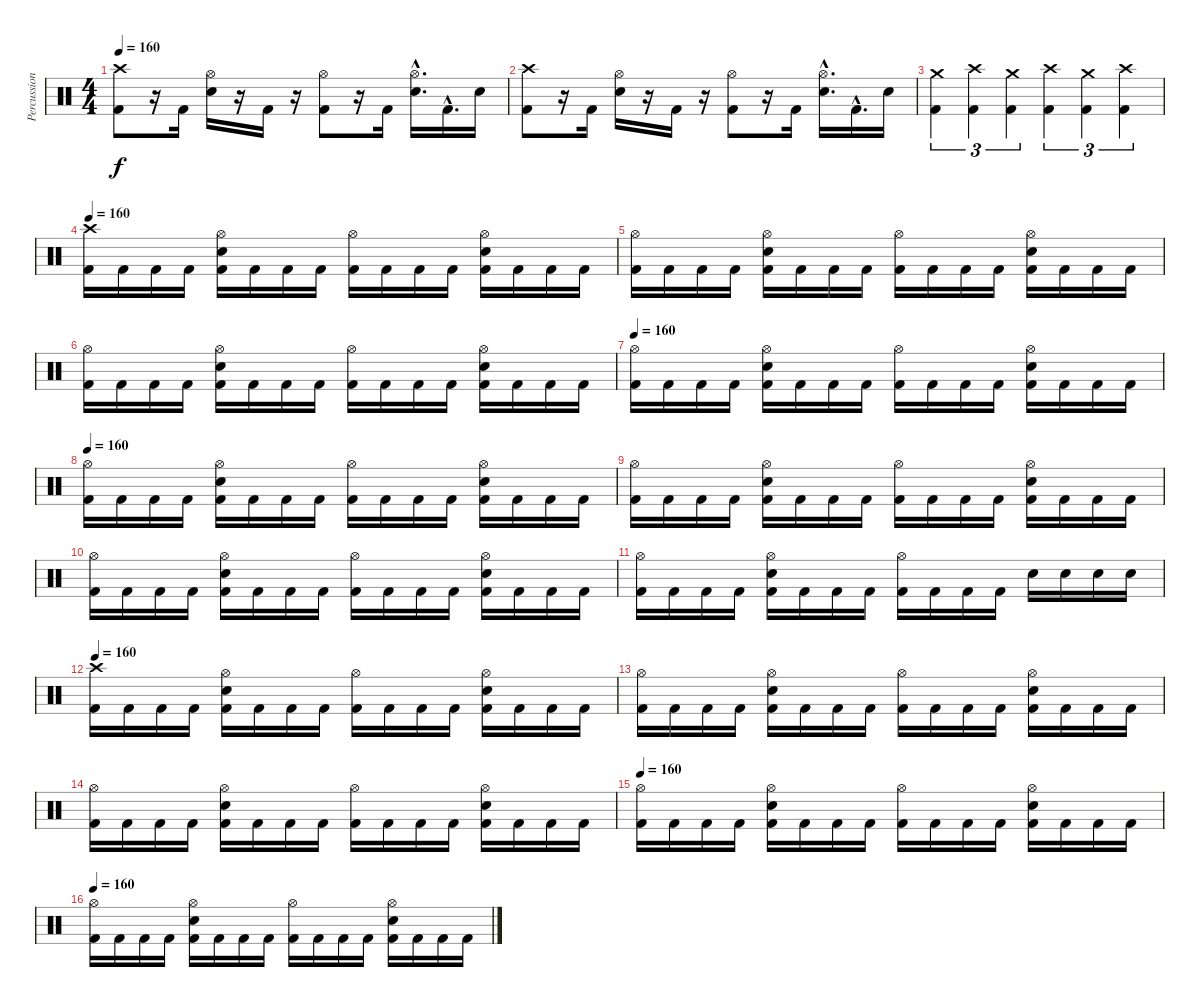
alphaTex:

\track ("Percussions" "Percussion") {instrument percussion}
\staff {score}
\articulation defaults
\ts (4 4)
\tempo 160
\clef neutral
\ks c
("Kick (hit) 2" "Crash high (hit)").8{dy f} r.16 "Kick (hit) 2".16 ("Electric Snare (hit)" "Hi-Hat (open)").16 r.16 "Kick (hit) 2".16 r.16 ("Kick (hit) 2" "Hi-Hat (open)").8 r.16 "Kick (hit) 2".16 ("Electric Snare (hit)"{hac} "Hi-Hat (open)"{hac}).16{d} "Kick (hit) 2"{hac}.16{d} "Electric Snare (hit)".16 |
("Kick (hit) 2" "Crash high (hit)").8 r.16 "Kick (hit) 2".16 ("Electric Snare (hit)" "Hi-Hat (open)").16 r.16 "Kick (hit) 2".16 r.16 ("Kick (hit) 2" "Hi-Hat (open)").8 r.16 "Kick (hit) 2".16 ("Electric Snare (hit)"{hac} "Hi-Hat (open)"{hac}).16{d} "Kick (hit) 2"{hac}.16{d} "Electric Snare (hit)".16 |
("Kick (hit) 2" "Crash medium (hit)").4{tu (3 2)} ("Kick (hit) 2" "Crash high (hit)").4{tu (3 2)} ("Kick (hit) 2" "Crash medium (hit)").4{tu (3 2)} ("Kick (hit) 2" "Crash high (hit)").4{tu (3 2)} ("Kick (hit) 2" "Crash medium (hit)").4{tu (3 2)} ("Kick (hit) 2" "Crash high (hit)").4{tu (3 2)} |
\tempo 160
("Kick (hit) 2" "Crash high (hit)").16 "Kick (hit) 2".16 "Kick (hit) 2".16 "Kick (hit) 2".16 ("Kick (hit) 2" "Electric Snare (hit)" "Hi-Hat (open)").16 "Kick (hit) 2".16 "Kick (hit) 2".16 "Kick (hit) 2".16 ("Kick (hit) 2" "Hi-Hat (open)").16 "Kick (hit) 2".16 "Kick (hit) 2".16 "Kick (hit) 2".16 ("Kick (hit) 2" "Electric Snare (hit)" "Hi-Hat (open)").16 "Kick (hit) 2".16 "Kick (hit) 2".16 "Kick (hit) 2".16 |
("Kick (hit) 2" "Hi-Hat (open)").16 "Kick (hit) 2".16 "Kick (hit) 2".16 "Kick (hit) 2".16 ("Kick (hit) 2" "Electric Snare (hit)" "Hi-Hat (open)").16 "Kick (hit) 2".16 "Kick (hit) 2".16 "Kick (hit) 2".16 ("Kick (hit) 2" "Hi-Hat (open)").16 "Kick (hit) 2".16 "Kick (hit) 2".16 "Kick (hit) 2".16 ("Kick (hit) 2" "Electric Snare (hit)" "Hi-Hat (open)").16 "Kick (hit) 2".16 "Kick (hit) 2".16 "Kick (hit) 2".16 |
("Kick (hit) 2" "Hi-Hat (open)").16 "Kick (hit) 2".16 "Kick (hit) 2".16 "Kick (hit) 2".16 ("Kick (hit) 2" "Electric Snare (hit)" "Hi-Hat (open)").16 "Kick (hit) 2".16 "Kick (hit) 2".16 "Kick (hit) 2".16 ("Kick (hit) 2" "Hi-Hat (open)").16 "Kick (hit) 2".16 "Kick (hit) 2".16 "Kick (hit) 2".16 ("Kick (hit) 2" "Electric Snare (hit)" "Hi-Hat (open)").16 "Kick (hit) 2".16 "Kick (hit) 2".16 "Kick (hit) 2".16 |
\tempo 160
("Kick (hit) 2" "Hi-Hat (open)").16 "Kick (hit) 2".16 "Kick (hit) 2".16 "Kick (hit) 2".16 ("Kick (hit) 2" "Electric Snare (hit)" "Hi-Hat (open)").16 "Kick (hit) 2".16 "Kick (hit) 2".16 "Kick (hit) 2".16 ("Kick (hit) 2" "Hi-Hat (open)").16 "Kick (hit) 2".16 "Kick (hit) 2".16 "Kick (hit) 2".16 ("Kick (hit) 2" "Electric Snare (hit)" "Hi-Hat (open)").16 "Kick (hit) 2".16 "Kick (hit) 2".16 "Kick (hit) 2".16 |
\tempo 160
("Kick (hit) 2" "Hi-Hat (open)").16 "Kick (hit) 2".16 "Kick (hit) 2".16 "Kick (hit) 2".16 ("Kick (hit) 2" "Electric Snare (hit)" "Hi-Hat (open)").16 "Kick (hit) 2".16 "Kick (hit) 2".16 "Kick (hit) 2".16 ("Kick (hit) 2" "Hi-Hat (open)").16 "Kick (hit) 2".16 "Kick (hit) 2".16 "Kick (hit) 2".16 ("Kick (hit) 2" "Electric Snare (hit)" "Hi-Hat (open)").16 "Kick (hit) 2".16 "Kick (hit) 2".16 "Kick (hit) 2".16 |
("Kick (hit) 2" "Hi-Hat (open)").16 "Kick (hit) 2".16 "Kick (hit) 2".16 "Kick (hit) 2".16 ("Kick (hit) 2" "Electric Snare (hit)" "Hi-Hat (open)").16 "Kick (hit) 2".16 "Kick (hit) 2".16 "Kick (hit) 2".16 ("Kick (hit) 2" "Hi-Hat (open)").16 "Kick (hit) 2".16 "Kick (hit) 2".16 "Kick (hit) 2".16 ("Kick (hit) 2" "Electric Snare (hit)" "Hi-Hat (open)").16 "Kick (hit) 2".16 "Kick (hit) 2".16 "Kick (hit) 2".16 |
("Kick (hit) 2" "Hi-Hat (open)").16 "Kick (hit) 2".16 "Kick (hit) 2".16 "Kick (hit) 2".16 ("Kick (hit) 2" "Electric Snare (hit)" "Hi-Hat (open)").16 "Kick (hit) 2".16 "Kick (hit) 2".16 "Kick (hit) 2".16 ("Kick (hit) 2" "Hi-Hat (open)").16 "Kick (hit) 2".16 "Kick (hit) 2".16 "Kick (hit) 2".16 ("Kick (hit) 2" "Electric Snare (hit)" "Hi-Hat (open)").16 "Kick (hit) 2".16 "Kick (hit) 2".16 "Kick (hit) 2".16 |
("Kick (hit) 2" "Hi-Hat (open)").16 "Kick (hit) 2".16 "Kick (hit) 2".16 "Kick (hit) 2".16 ("Kick (hit) 2" "Electric Snare (hit)" "Hi-Hat (open)").16 "Kick (hit) 2".16 "Kick (hit) 2".16 "Kick (hit) 2".16 ("Kick (hit) 2" "Hi-Hat (open)").16 "Kick (hit) 2".16 "Kick (hit) 2".16 "Kick (hit) 2".16 "Electric Snare (hit)".16 "Electric Snare (hit)".16 "Electric Snare (hit)".16 "Electric Snare (hit)".16 |
\tempo 160
("Kick (hit) 2" "Crash high (hit)").16 "Kick (hit) 2".16 "Kick (hit) 2".16 "Kick (hit) 2".16 ("Kick (hit) 2" "Electric Snare (hit)" "Hi-Hat (open)").16 "Kick (hit) 2".16 "Kick (hit) 2".16 "Kick (hit) 2".16 ("Kick (hit) 2" "Hi-Hat (open)").16 "Kick (hit) 2".16 "Kick (hit) 2".16 "Kick (hit) 2".16 ("Kick (hit) 2" "Electric Snare (hit)" "Hi-Hat (open)").16 "Kick (hit) 2".16 "Kick (hit) 2".16 "Kick (hit) 2".16 |
("Kick (hit) 2" "Hi-Hat (open)").16 "Kick (hit) 2".16 "Kick (hit) 2".16 "Kick (hit) 2".16 ("Kick (hit) 2" "Electric Snare (hit)" "Hi-Hat (open)").16 "Kick (hit) 2".16 "Kick (hit) 2".16 "Kick (hit) 2".16 ("Kick (hit) 2" "Hi-Hat (open)").16 "Kick (hit) 2".16 "Kick (hit) 2".16 "Kick (hit) 2".16 ("Kick (hit) 2" "Electric Snare (hit)" "Hi-Hat (open)").16 "Kick (hit) 2".16 "Kick (hit) 2".16 "Kick (hit) 2".16 |
("Kick (hit) 2" "Hi-Hat (open)").16 "Kick (hit) 2".16 "Kick (hit) 2".16 "Kick (hit) 2".16 ("Kick (hit) 2" "Electric Snare (hit)" "Hi-Hat (open)").16 "Kick (hit) 2".16 "Kick (hit) 2".16 "Kick (hit) 2".16 ("Kick (hit) 2" "Hi-Hat (open)").16 "Kick (hit) 2".16 "Kick (hit) 2".16 "Kick (hit) 2".16 ("Kick (hit) 2" "Electric Snare (hit)" "Hi-Hat (open)").16 "Kick (hit) 2".16 "Kick (hit) 2".16 "Kick (hit) 2".16 |
\tempo 160
("Kick (hit) 2" "Hi-Hat (open)").16 "Kick (hit) 2".16 "Kick (hit) 2".16 "Kick (hit) 2".16 ("Kick (hit) 2" "Electric Snare (hit)" "Hi-Hat (open)").16 "Kick (hit) 2".16 "Kick (hit) 2".16 "Kick (hit) 2".16 ("Kick (hit) 2" "Hi-Hat (open)").16 "Kick (hit) 2".16 "Kick (hit) 2".16 "Kick (hit) 2".16 ("Kick (hit) 2" "Electric Snare (hit)" "Hi-Hat (open)").16 "Kick (hit) 2".16 "Kick (hit) 2".16 "Kick (hit) 2".16 |
\tempo 160
("Kick (hit) 2" "Hi-Hat (open)").16 "Kick (hit) 2".16 "Kick (hit) 2".16 "Kick (hit) 2".16 ("Kick (hit) 2" "Electric Snare (hit)" "Hi-Hat (open)").16 "Kick (hit) 2".16 "Kick (hit) 2".16 "Kick (hit) 2".16 ("Kick (hit) 2" "Hi-Hat (open)").16 "Kick (hit) 2".16 "Kick (hit) 2".16 "Kick (hit) 2".16 ("Kick (hit) 2" "Electric Snare (hit)" "Hi-Hat (open)").16 "Kick (hit) 2".16 "Kick (hit) 2".16 "Kick (hit) 2".16
